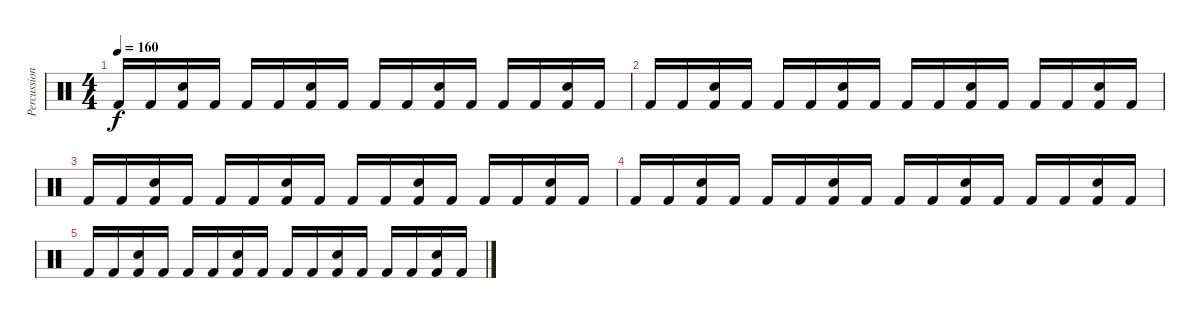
\track ("Percussion" "Percussion") {instrument percussion}
\staff {score}
\articulation defaults
\ts (4 4)
\tempo 160
\clef neutral
\ks c "Kick (hit) 2".16{dy f} "Kick (hit) 2".16
("Electric Snare (hit)" "Kick (hit) 2").16 "Kick (hit) 2".16 "Kick (hit) 2".16 "Kick (hit) 2".16 ("Electric Snare (hit)" "Kick (hit) 2").16 "Kick (hit) 2".16 "Kick (hit) 2".16 "Kick (hit) 2".16 ("Electric Snare (hit)" "Kick (hit) 2").16 "Kick (hit) 2".16 "Kick (hit) 2".16 "Kick (hit) 2".16 ("Electric Snare (hit)" "Kick (hit) 2").16 "Kick (hit) 2".16 |
"Kick (hit) 2".16 "Kick (hit) 2".16 ("Electric Snare (hit)" "Kick (hit) 2").16 "Kick (hit) 2".16 "Kick (hit) 2".16 "Kick (hit) 2".16 ("Electric Snare (hit)" "Kick (hit) 2").16 "Kick (hit) 2".16 "Kick (hit) 2".16 "Kick (hit) 2".16 ("Electric Snare (hit)" "Kick (hit) 2").16 "Kick (hit) 2".16 "Kick (hit) 2".16 "Kick (hit) 2".16 ("Electric Snare (hit)" "Kick (hit) 2").16 "Kick (hit) 2".16 |
"Kick (hit) 2".16 "Kick (hit) 2".16 ("Electric Snare (hit)" "Kick (hit) 2").16 "Kick (hit) 2".16 "Kick (hit) 2".16 "Kick (hit) 2".16 ("Electric Snare (hit)" "Kick (hit) 2").16 "Kick (hit) 2".16 "Kick (hit) 2".16 "Kick (hit) 2".16 ("Electric Snare (hit)" "Kick (hit) 2").16 "Kick (hit) 2".16 "Kick (hit) 2".16 "Kick (hit) 2".16 ("Electric Snare (hit)" "Kick (hit) 2").16 "Kick (hit) 2".16 |
"Kick (hit) 2".16 "Kick (hit) 2".16 ("Electric Snare (hit)" "Kick (hit) 2").16 "Kick (hit) 2".16 "Kick (hit) 2".16 "Kick (hit) 2".16 ("Electric Snare (hit)" "Kick (hit) 2").16 "Kick (hit) 2".16 "Kick (hit) 2".16 "Kick (hit) 2".16 ("Electric Snare (hit)" "Kick (hit) 2").16 "Kick (hit) 2".16 "Kick (hit) 2".16 "Kick (hit) 2".16 ("Electric Snare (hit)" "Kick (hit) 2").16 "Kick (hit) 2".16 |
"Kick (hit) 2".16 "Kick (hit) 2".16 ("Electric Snare (hit)" "Kick (hit) 2").16 "Kick (hit) 2".16 "Kick (hit) 2".16 "Kick (hit) 2".16 ("Electric Snare (hit)" "Kick (hit) 2").16 "Kick (hit) 2".16 "Kick (hit) 2".16 "Kick (hit) 2".16 ("Electric Snare (hit)" "Kick (hit) 2").16 "Kick (hit) 2".16 "Kick (hit) 2".16 "Kick (hit) 2".16 ("Electric Snare (hit)" "Kick (hit) 2").16 "Kick (hit) 2".16
